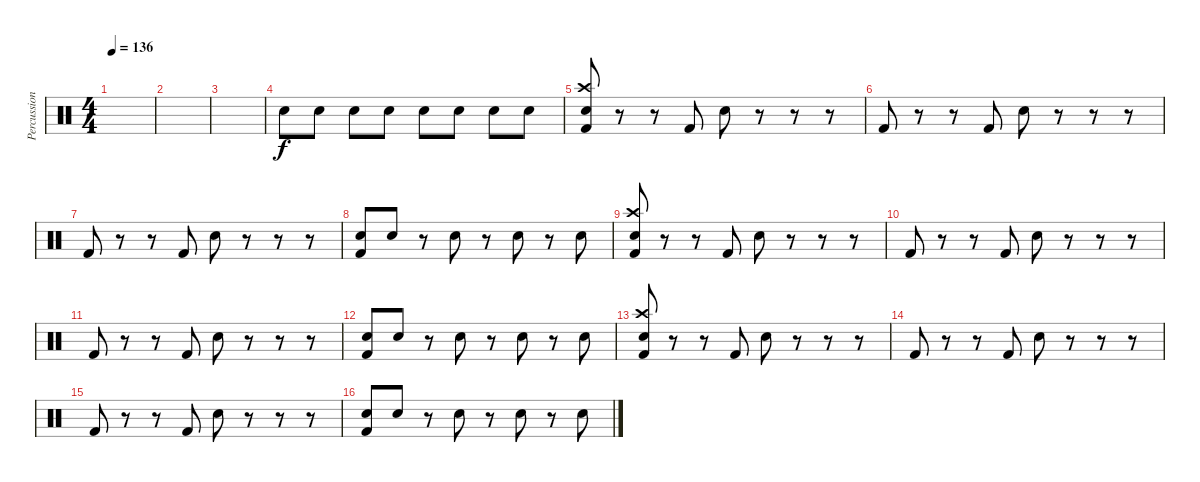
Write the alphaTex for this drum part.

\track ("Percussion" "Percussion") {instrument percussion}
\staff {score}
\articulation defaults
\ts (4 4)
\tempo 136
\clef neutral
\ks c
|
|
|
"Electric Snare (hit)".8 "Electric Snare (hit)".8 "Electric Snare (hit)".8 "Electric Snare (hit)".8 "Electric Snare (hit)".8 "Electric Snare (hit)".8 "Electric Snare (hit)".8 "Electric Snare (hit)".8 |
("Crash high (hit)" "Electric Snare (hit)" "Kick (hit) 2").8 r.8 r.8 "Kick (hit) 2".8 "Electric Snare (hit)".8 r.8 r.8 r.8 |
"Kick (hit) 2".8 r.8 r.8 "Kick (hit) 2".8 "Electric Snare (hit)".8 r.8 r.8 r.8 |
"Kick (hit) 2".8 r.8 r.8 "Kick (hit) 2".8 "Electric Snare (hit)".8 r.8 r.8 r.8 |
("Electric Snare (hit)" "Kick (hit) 2").8 "Electric Snare (hit)".8 r.8 "Electric Snare (hit)".8 r.8 "Electric Snare (hit)".8 r.8 "Electric Snare (hit)".8 |
("Crash high (hit)" "Electric Snare (hit)" "Kick (hit) 2").8 r.8 r.8 "Kick (hit) 2".8 "Electric Snare (hit)".8 r.8 r.8 r.8 |
"Kick (hit) 2".8 r.8 r.8 "Kick (hit) 2".8 "Electric Snare (hit)".8 r.8 r.8 r.8 |
"Kick (hit) 2".8 r.8 r.8 "Kick (hit) 2".8 "Electric Snare (hit)".8 r.8 r.8 r.8 |
("Electric Snare (hit)" "Kick (hit) 2").8 "Electric Snare (hit)".8 r.8 "Electric Snare (hit)".8 r.8 "Electric Snare (hit)".8 r.8 "Electric Snare (hit)".8 |
("Crash high (hit)" "Electric Snare (hit)" "Kick (hit) 2").8 r.8 r.8 "Kick (hit) 2".8 "Electric Snare (hit)".8 r.8 r.8 r.8 |
"Kick (hit) 2".8 r.8 r.8 "Kick (hit) 2".8 "Electric Snare (hit)".8 r.8 r.8 r.8 |
"Kick (hit) 2".8 r.8 r.8 "Kick (hit) 2".8 "Electric Snare (hit)".8 r.8 r.8 r.8 |
("Electric Snare (hit)" "Kick (hit) 2").8 "Electric Snare (hit)".8 r.8 "Electric Snare (hit)".8 r.8 "Electric Snare (hit)".8 r.8 "Electric Snare (hit)".8
